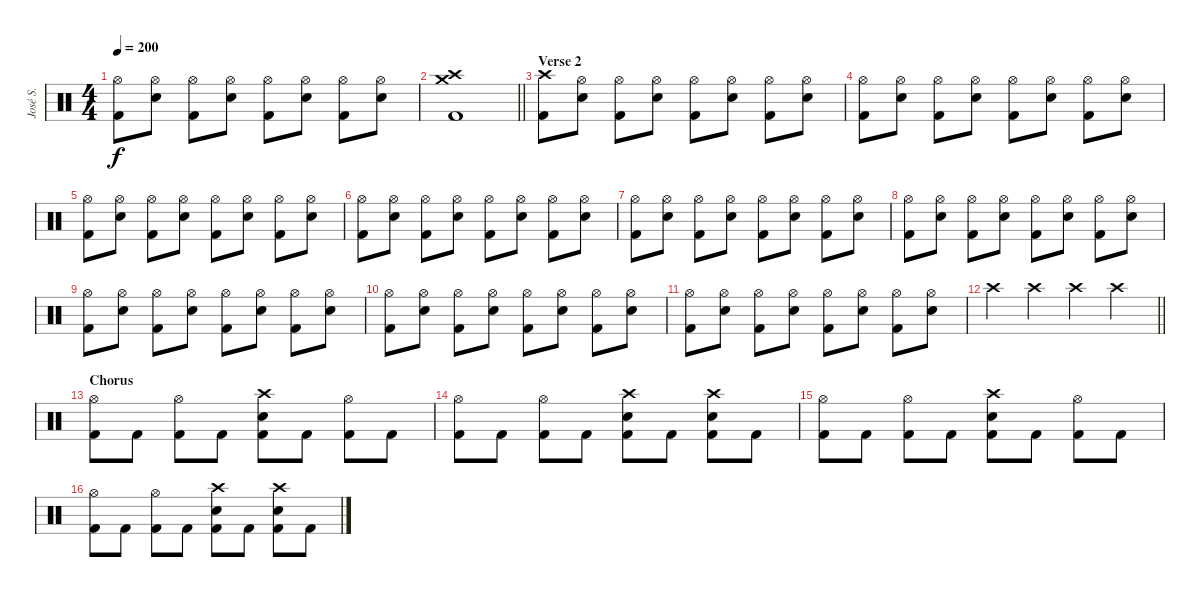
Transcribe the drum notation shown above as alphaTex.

\track ("José S." "José S.") {instrument percussion}
\staff {score}
\articulation defaults
\ts (4 4)
\tempo 200
\clef neutral
\ks c
("Hi-Hat (open)" "Kick (hit) 2").8{dy f} ("Hi-Hat (open)" "Electric Snare (hit)").8 ("Hi-Hat (open)" "Kick (hit) 2").8 ("Hi-Hat (open)" "Electric Snare (hit)").8 ("Hi-Hat (open)" "Kick (hit) 2").8 ("Hi-Hat (open)" "Electric Snare (hit)").8 ("Hi-Hat (open)" "Kick (hit) 2").8 ("Hi-Hat (open)" "Electric Snare (hit)").8 |
\barLineRight lightlight
("Crash high (hit)" "Crash medium (hit)" "Kick (hit) 2").1 |
\section ("" "Verse 2")
("Crash high (hit)" "Kick (hit) 2").8 ("Hi-Hat (open)" "Electric Snare (hit)").8 ("Hi-Hat (open)" "Kick (hit) 2").8 ("Hi-Hat (open)" "Electric Snare (hit)").8 ("Hi-Hat (open)" "Kick (hit) 2").8 ("Hi-Hat (open)" "Electric Snare (hit)").8 ("Hi-Hat (open)" "Kick (hit) 2").8 ("Hi-Hat (open)" "Electric Snare (hit)").8 |
("Hi-Hat (open)" "Kick (hit) 2").8 ("Hi-Hat (open)" "Electric Snare (hit)").8 ("Hi-Hat (open)" "Kick (hit) 2").8 ("Hi-Hat (open)" "Electric Snare (hit)").8 ("Hi-Hat (open)" "Kick (hit) 2").8 ("Hi-Hat (open)" "Electric Snare (hit)").8 ("Hi-Hat (open)" "Kick (hit) 2").8 ("Hi-Hat (open)" "Electric Snare (hit)").8 |
("Hi-Hat (open)" "Kick (hit) 2").8 ("Hi-Hat (open)" "Electric Snare (hit)").8 ("Hi-Hat (open)" "Kick (hit) 2").8 ("Hi-Hat (open)" "Electric Snare (hit)").8 ("Hi-Hat (open)" "Kick (hit) 2").8 ("Hi-Hat (open)" "Electric Snare (hit)").8 ("Hi-Hat (open)" "Kick (hit) 2").8 ("Hi-Hat (open)" "Electric Snare (hit)").8 |
("Hi-Hat (open)" "Kick (hit) 2").8 ("Hi-Hat (open)" "Electric Snare (hit)").8 ("Hi-Hat (open)" "Kick (hit) 2").8 ("Hi-Hat (open)" "Electric Snare (hit)").8 ("Hi-Hat (open)" "Kick (hit) 2").8 ("Hi-Hat (open)" "Electric Snare (hit)").8 ("Hi-Hat (open)" "Kick (hit) 2").8 ("Hi-Hat (open)" "Electric Snare (hit)").8 |
("Hi-Hat (open)" "Kick (hit) 2").8 ("Hi-Hat (open)" "Electric Snare (hit)").8 ("Hi-Hat (open)" "Kick (hit) 2").8 ("Hi-Hat (open)" "Electric Snare (hit)").8 ("Hi-Hat (open)" "Kick (hit) 2").8 ("Hi-Hat (open)" "Electric Snare (hit)").8 ("Hi-Hat (open)" "Kick (hit) 2").8 ("Hi-Hat (open)" "Electric Snare (hit)").8 |
("Hi-Hat (open)" "Kick (hit) 2").8 ("Hi-Hat (open)" "Electric Snare (hit)").8 ("Hi-Hat (open)" "Kick (hit) 2").8 ("Hi-Hat (open)" "Electric Snare (hit)").8 ("Hi-Hat (open)" "Kick (hit) 2").8 ("Hi-Hat (open)" "Electric Snare (hit)").8 ("Hi-Hat (open)" "Kick (hit) 2").8 ("Hi-Hat (open)" "Electric Snare (hit)").8 |
("Hi-Hat (open)" "Kick (hit) 2").8 ("Hi-Hat (open)" "Electric Snare (hit)").8 ("Hi-Hat (open)" "Kick (hit) 2").8 ("Hi-Hat (open)" "Electric Snare (hit)").8 ("Hi-Hat (open)" "Kick (hit) 2").8 ("Hi-Hat (open)" "Electric Snare (hit)").8 ("Hi-Hat (open)" "Kick (hit) 2").8 ("Hi-Hat (open)" "Electric Snare (hit)").8 |
("Hi-Hat (open)" "Kick (hit) 2").8 ("Hi-Hat (open)" "Electric Snare (hit)").8 ("Hi-Hat (open)" "Kick (hit) 2").8 ("Hi-Hat (open)" "Electric Snare (hit)").8 ("Hi-Hat (open)" "Kick (hit) 2").8 ("Hi-Hat (open)" "Electric Snare (hit)").8 ("Hi-Hat (open)" "Kick (hit) 2").8 ("Hi-Hat (open)" "Electric Snare (hit)").8 |
("Hi-Hat (open)" "Kick (hit) 2").8 ("Hi-Hat (open)" "Electric Snare (hit)").8 ("Hi-Hat (open)" "Kick (hit) 2").8 ("Hi-Hat (open)" "Electric Snare (hit)").8 ("Hi-Hat (open)" "Kick (hit) 2").8 ("Hi-Hat (open)" "Electric Snare (hit)").8 ("Hi-Hat (open)" "Kick (hit) 2").8 ("Hi-Hat (open)" "Electric Snare (hit)").8 |
\barLineRight lightlight "Crash high (hit)".4 "Crash high (hit)".4 "Crash high (hit)".4 "Crash high (hit)".4
|
\section ("" "Chorus")
("Hi-Hat (open)" "Kick (hit) 2").8 "Kick (hit) 2".8 ("Hi-Hat (open)" "Kick (hit) 2").8 "Kick (hit) 2".8 ("Crash high (hit)" "Electric Snare (hit)" "Kick (hit) 2").8 "Kick (hit) 2".8 ("Hi-Hat (open)" "Kick (hit) 2").8 "Kick (hit) 2".8 |
("Hi-Hat (open)" "Kick (hit) 2").8 "Kick (hit) 2".8 ("Hi-Hat (open)" "Kick (hit) 2").8 "Kick (hit) 2".8 ("Crash high (hit)" "Electric Snare (hit)" "Kick (hit) 2").8 "Kick (hit) 2".8 ("Crash high (hit)" "Electric Snare (hit)" "Kick (hit) 2").8 "Kick (hit) 2".8 |
("Hi-Hat (open)" "Kick (hit) 2").8 "Kick (hit) 2".8 ("Hi-Hat (open)" "Kick (hit) 2").8 "Kick (hit) 2".8 ("Crash high (hit)" "Electric Snare (hit)" "Kick (hit) 2").8 "Kick (hit) 2".8 ("Hi-Hat (open)" "Kick (hit) 2").8 "Kick (hit) 2".8 |
("Hi-Hat (open)" "Kick (hit) 2").8 "Kick (hit) 2".8 ("Hi-Hat (open)" "Kick (hit) 2").8 "Kick (hit) 2".8 ("Crash high (hit)" "Electric Snare (hit)" "Kick (hit) 2").8 "Kick (hit) 2".8 ("Crash high (hit)" "Electric Snare (hit)" "Kick (hit) 2").8 "Kick (hit) 2".8
